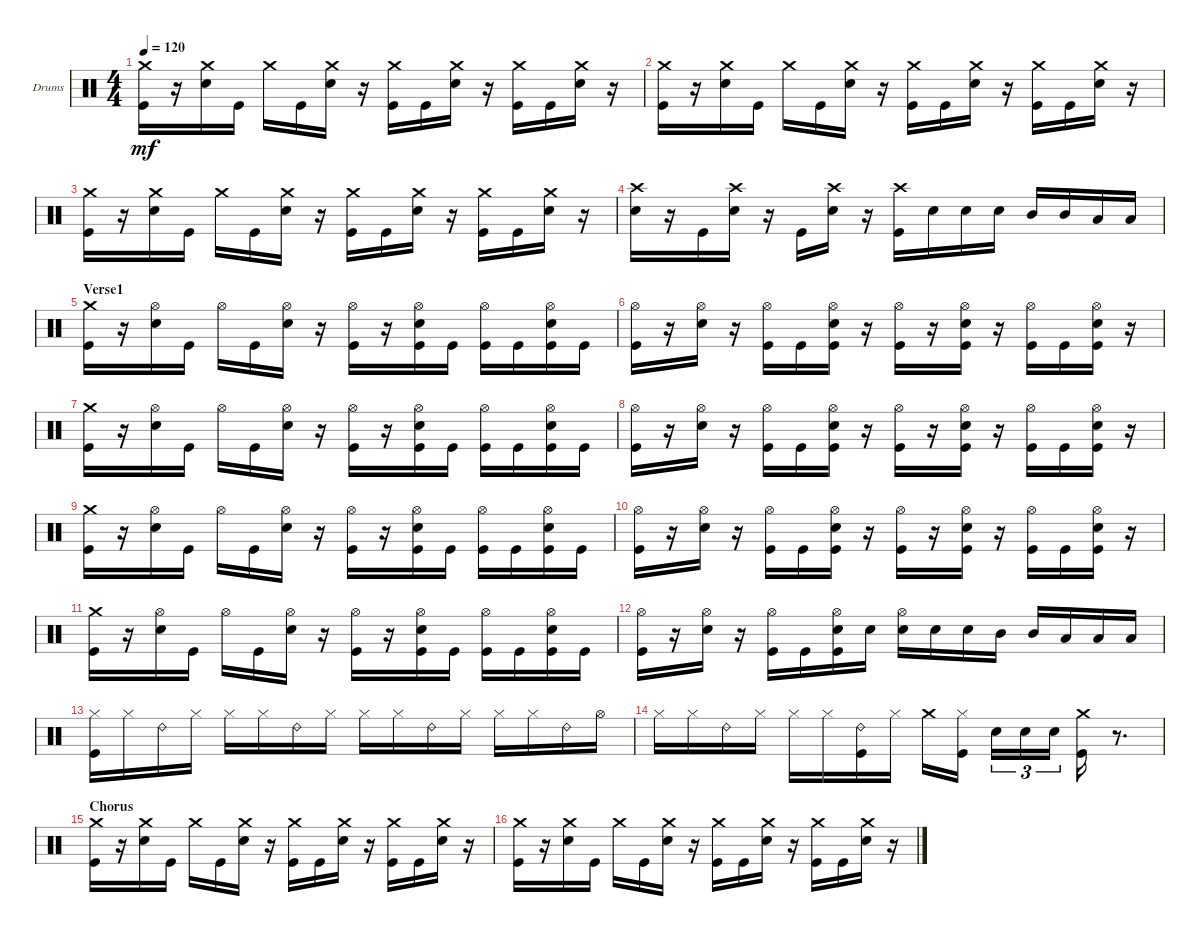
\bracketExtendMode groupsimilarinstruments
\firstSystemTrackNameOrientation horizontal
\otherSystemsTrackNameOrientation horizontal
\track ("Drumkit" "Drums") {instrument percussion}
\staff {score}
\articulation defaults
\ts (4 4)
\tempo 120
\clef neutral
\ks c
("Kick (hit)" "Crash medium (hit)").16{dy mf} r.16 ("Snare (hit) 2" "Crash medium (hit)").16 "Kick (hit)".16 "Crash medium (hit)".16 "Kick (hit)".16 ("Snare (hit) 2" "Crash medium (hit)").16 r.16 ("Kick (hit)" "Crash medium (hit)").16 "Kick (hit)".16 ("Snare (hit) 2" "Crash medium (hit)").16 r.16 ("Kick (hit)" "Crash medium (hit)").16 "Kick (hit)".16 ("Snare (hit) 2" "Crash medium (hit)").16 r.16 |
("Kick (hit)" "Crash medium (hit)").16 r.16 ("Snare (hit) 2" "Crash medium (hit)").16 "Kick (hit)".16 "Crash medium (hit)".16 "Kick (hit)".16 ("Snare (hit) 2" "Crash medium (hit)").16 r.16 ("Kick (hit)" "Crash medium (hit)").16 "Kick (hit)".16 ("Snare (hit) 2" "Crash medium (hit)").16 r.16 ("Kick (hit)" "Crash medium (hit)").16 "Kick (hit)".16 ("Snare (hit) 2" "Crash medium (hit)").16 r.16 |
("Kick (hit)" "Crash medium (hit)").16 r.16 ("Snare (hit) 2" "Crash medium (hit)").16 "Kick (hit)".16 "Crash medium (hit)".16 "Kick (hit)".16 ("Snare (hit) 2" "Crash medium (hit)").16 r.16 ("Kick (hit)" "Crash medium (hit)").16 "Kick (hit)".16 ("Snare (hit) 2" "Crash medium (hit)").16 r.16 ("Kick (hit)" "Crash medium (hit)").16 "Kick (hit)".16 ("Snare (hit) 2" "Crash medium (hit)").16 r.16 |
("Snare (hit) 2" "Crash high (hit)").16 r.16 "Kick (hit)".16 ("Snare (hit) 2" "Crash high (hit)").16 r.16 "Kick (hit)".16 ("Snare (hit) 2" "Crash high (hit)").16 r.16 ("Kick (hit)" "Crash high (hit)").16 "Snare (hit) 2".16 "Snare (hit) 2".16 "Snare (hit) 2".16 "Mid Tom (hit)".16 "Mid Tom (hit)".16 "Low Tom (hit)".16 "Low Tom (hit)".16 |
\section ("" "Verse1")
("Crash medium (hit)" "Kick (hit)").16 r.16 ("Hi-Hat (open)" "Snare (hit) 2").16 "Kick (hit)".16 "Hi-Hat (open)".16 "Kick (hit)".16 ("Hi-Hat (open)" "Snare (hit) 2").16 r.16 ("Hi-Hat (open)" "Kick (hit)").16 r.16 ("Hi-Hat (open)" "Snare (hit) 2" "Kick (hit)").16 "Kick (hit)".16 ("Hi-Hat (open)" "Kick (hit)").16 "Kick (hit)".16 ("Hi-Hat (open)" "Snare (hit) 2" "Kick (hit)").16 "Kick (hit)".16 |
("Hi-Hat (open)" "Kick (hit)").16 r.16 ("Hi-Hat (open)" "Snare (hit) 2").16 r.16 ("Hi-Hat (open)" "Kick (hit)").16 "Kick (hit)".16 ("Hi-Hat (open)" "Snare (hit) 2" "Kick (hit)").16 r.16 ("Hi-Hat (open)" "Kick (hit)").16 r.16 ("Hi-Hat (open)" "Snare (hit) 2" "Kick (hit)").16 r.16 ("Hi-Hat (open)" "Kick (hit)").16 "Kick (hit)".16 ("Hi-Hat (open)" "Snare (hit) 2" "Kick (hit)").16 r.16 |
("Crash medium (hit)" "Kick (hit)").16 r.16 ("Hi-Hat (open)" "Snare (hit) 2").16 "Kick (hit)".16 "Hi-Hat (open)".16 "Kick (hit)".16 ("Hi-Hat (open)" "Snare (hit) 2").16 r.16 ("Hi-Hat (open)" "Kick (hit)").16 r.16 ("Hi-Hat (open)" "Snare (hit) 2" "Kick (hit)").16 "Kick (hit)".16 ("Hi-Hat (open)" "Kick (hit)").16 "Kick (hit)".16 ("Hi-Hat (open)" "Snare (hit) 2" "Kick (hit)").16 "Kick (hit)".16 |
("Hi-Hat (open)" "Kick (hit)").16 r.16 ("Hi-Hat (open)" "Snare (hit) 2").16 r.16 ("Hi-Hat (open)" "Kick (hit)").16 "Kick (hit)".16 ("Hi-Hat (open)" "Snare (hit) 2" "Kick (hit)").16 r.16 ("Hi-Hat (open)" "Kick (hit)").16 r.16 ("Hi-Hat (open)" "Snare (hit) 2" "Kick (hit)").16 r.16 ("Hi-Hat (open)" "Kick (hit)").16 "Kick (hit)".16 ("Hi-Hat (open)" "Snare (hit) 2" "Kick (hit)").16 r.16 |
("Crash medium (hit)" "Kick (hit)").16 r.16 ("Hi-Hat (open)" "Snare (hit) 2").16 "Kick (hit)".16 "Hi-Hat (open)".16 "Kick (hit)".16 ("Hi-Hat (open)" "Snare (hit) 2").16 r.16 ("Hi-Hat (open)" "Kick (hit)").16 r.16 ("Hi-Hat (open)" "Snare (hit) 2" "Kick (hit)").16 "Kick (hit)".16 ("Hi-Hat (open)" "Kick (hit)").16 "Kick (hit)".16 ("Hi-Hat (open)" "Snare (hit) 2" "Kick (hit)").16 "Kick (hit)".16 |
("Hi-Hat (open)" "Kick (hit)").16 r.16 ("Hi-Hat (open)" "Snare (hit) 2").16 r.16 ("Hi-Hat (open)" "Kick (hit)").16 "Kick (hit)".16 ("Hi-Hat (open)" "Snare (hit) 2" "Kick (hit)").16 r.16 ("Hi-Hat (open)" "Kick (hit)").16 r.16 ("Hi-Hat (open)" "Snare (hit) 2" "Kick (hit)").16 r.16 ("Hi-Hat (open)" "Kick (hit)").16 "Kick (hit)".16 ("Hi-Hat (open)" "Snare (hit) 2" "Kick (hit)").16 r.16 |
("Crash medium (hit)" "Kick (hit)").16 r.16 ("Hi-Hat (open)" "Snare (hit) 2").16 "Kick (hit)".16 "Hi-Hat (open)".16 "Kick (hit)".16 ("Hi-Hat (open)" "Snare (hit) 2").16 r.16 ("Hi-Hat (open)" "Kick (hit)").16 r.16 ("Hi-Hat (open)" "Snare (hit) 2" "Kick (hit)").16 "Kick (hit)".16 ("Hi-Hat (open)" "Kick (hit)").16 "Kick (hit)".16 ("Hi-Hat (open)" "Snare (hit) 2" "Kick (hit)").16 "Kick (hit)".16 |
("Hi-Hat (open)" "Kick (hit)").16 r.16 ("Hi-Hat (open)" "Snare (hit) 2").16 r.16 ("Hi-Hat (open)" "Kick (hit)").16 "Kick (hit)".16 ("Hi-Hat (open)" "Snare (hit) 2" "Kick (hit)").16 "Snare (hit) 2".16 ("Snare (hit) 2" "Hi-Hat (open)").16 "Snare (hit) 2".16 "Snare (hit) 2".16 "Mid Tom (hit)".16 "Mid Tom (hit)".16 "Low Tom (hit)".16 "Low Tom (hit)".16 "Low Tom (hit)".16 |
("Kick (hit)" "Hi-Hat (closed)").16 "Hi-Hat (closed)".16 "Ride (bell) 2".16 "Hi-Hat (closed)".16 "Hi-Hat (closed)".16 "Hi-Hat (closed)".16 "Ride (bell) 2".16 "Hi-Hat (closed)".16 "Hi-Hat (closed)".16 "Hi-Hat (closed)".16 "Ride (bell) 2".16 "Hi-Hat (closed)".16 "Hi-Hat (closed)".16 "Hi-Hat (closed)".16 "Ride (bell) 2".16 "Hi-Hat (open)".16 |
"Hi-Hat (closed)".16 "Hi-Hat (closed)".16 "Ride (bell) 2".16 "Hi-Hat (closed)".16 "Hi-Hat (closed)".16 "Hi-Hat (closed)".16 ("Ride (bell) 2" "Kick (hit)").16 "Hi-Hat (closed)".16 "Crash medium (hit)".16 ("Hi-Hat (closed)" "Kick (hit)").16 "Snare (hit) 2".16{tu (3 2)} "Snare (hit) 2".16{tu (3 2)} "Snare (hit) 2".16{tu (3 2)} ("Crash medium (hit)" "Kick (hit)").16 r.8{d} |
\section ("" "Chorus")
("Kick (hit)" "Crash medium (hit)").16 r.16 ("Snare (hit) 2" "Crash medium (hit)").16 "Kick (hit)".16 "Crash medium (hit)".16 "Kick (hit)".16 ("Snare (hit) 2" "Crash medium (hit)").16 r.16 ("Kick (hit)" "Crash medium (hit)").16 "Kick (hit)".16 ("Snare (hit) 2" "Crash medium (hit)").16 r.16 ("Kick (hit)" "Crash medium (hit)").16 "Kick (hit)".16 ("Snare (hit) 2" "Crash medium (hit)").16 r.16 |
("Kick (hit)" "Crash medium (hit)").16 r.16 ("Snare (hit) 2" "Crash medium (hit)").16 "Kick (hit)".16 "Crash medium (hit)".16 "Kick (hit)".16 ("Snare (hit) 2" "Crash medium (hit)").16 r.16 ("Kick (hit)" "Crash medium (hit)").16 "Kick (hit)".16 ("Snare (hit) 2" "Crash medium (hit)").16 r.16 ("Kick (hit)" "Crash medium (hit)").16 "Kick (hit)".16 ("Snare (hit) 2" "Crash medium (hit)").16 r.16
